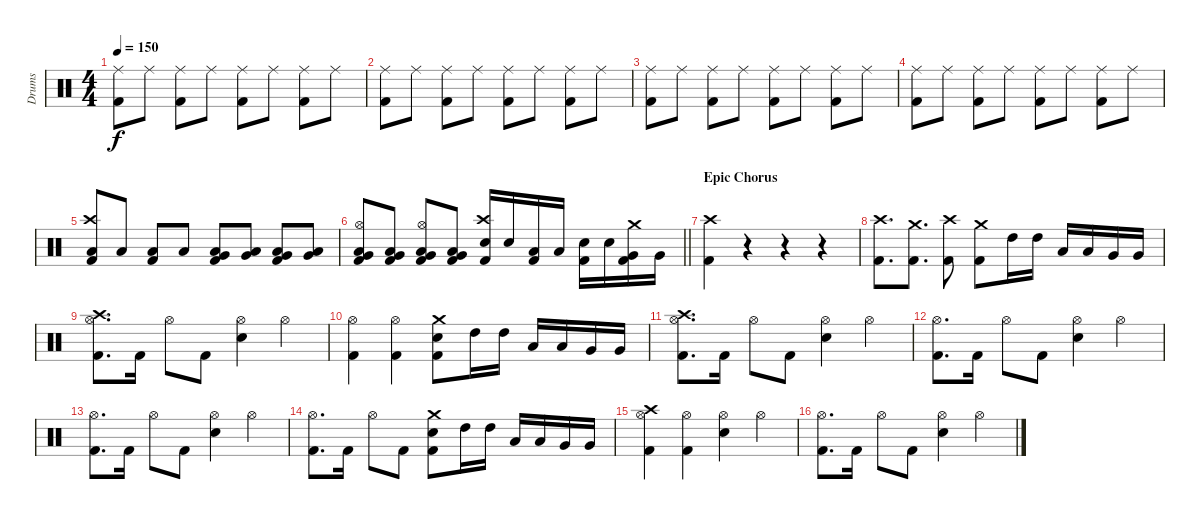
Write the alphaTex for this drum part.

\track ("Drums" "Drums") {instrument percussion}
\staff {score}
\articulation defaults
\ts (4 4)
\tempo 150
\clef neutral
\ks c
("Ride (middle)" "Kick (hit) 2").8{dy f} "Ride (middle)".8 ("Ride (middle)" "Kick (hit) 2").8 "Ride (middle)".8 ("Ride (middle)" "Kick (hit) 2").8 "Ride (middle)".8 ("Ride (middle)" "Kick (hit) 2").8 "Ride (middle)".8 |
("Ride (middle)" "Kick (hit) 2").8 "Ride (middle)".8 ("Ride (middle)" "Kick (hit) 2").8 "Ride (middle)".8 ("Ride (middle)" "Kick (hit) 2").8 "Ride (middle)".8 ("Ride (middle)" "Kick (hit) 2").8 "Ride (middle)".8 |
("Ride (middle)" "Kick (hit) 2").8 "Ride (middle)".8 ("Ride (middle)" "Kick (hit) 2").8 "Ride (middle)".8 ("Ride (middle)" "Kick (hit) 2").8 "Ride (middle)".8 ("Ride (middle)" "Kick (hit) 2").8 "Ride (middle)".8 |
("Ride (middle)" "Kick (hit) 2").8 "Ride (middle)".8 ("Ride (middle)" "Kick (hit) 2").8 "Ride (middle)".8 ("Ride (middle)" "Kick (hit) 2").8 "Ride (middle)".8 ("Ride (middle)" "Kick (hit) 2").8 "Ride (middle)".8 |
("Crash high (hit)" "Low Floor Tom (hit)" "Kick (hit) 2").8 "Low Floor Tom (hit)".8 ("Low Floor Tom (hit)" "Kick (hit) 2").8 "Low Floor Tom (hit)".8 ("Very Low Tom (hit)" "Low Floor Tom (hit)" "Kick (hit) 2").8 ("Very Low Tom (hit)" "Low Floor Tom (hit)").8 ("Very Low Tom (hit)" "Low Floor Tom (hit)" "Kick (hit) 2").8 ("Very Low Tom (hit)" "Low Floor Tom (hit)").8 |
\barLineRight lightlight
("Hi-Hat (open)" "Low Tom (hit)" "Very Low Tom (hit)" "Kick (hit) 2").8 ("Low Tom (hit)" "Very Low Tom (hit)" "Kick (hit) 2").8 ("Hi-Hat (open)" "Low Tom (hit)" "Very Low Tom (hit)" "Kick (hit) 2").8 ("Low Tom (hit)" "Very Low Tom (hit)" "Kick (hit) 2").8 ("Crash high (hit)" "Snare (hit) 2" "Kick (hit) 2").16 "Snare (hit) 2".16 ("Low Tom (hit)" "Kick (hit) 2").16 "Low Tom (hit)".16 ("Snare (hit) 2" "Kick (hit) 2").16 "Snare (hit) 2".16 ("Crash medium (hit)" "Very Low Tom (hit)" "Kick (hit) 2").16 "Very Low Tom (hit)".16 |
\section ("" "Epic Chorus")
("Crash high (hit)" "Kick (hit) 2").4 r.4 r.4 r.4 |
("Crash high (hit)" "Kick (hit) 2").8{d} ("Crash medium (hit)" "Kick (hit) 2").8{d} ("Crash high (hit)" "Kick (hit) 2").8 ("Crash medium (hit)" "Kick (hit) 2").8 "High Tom (hit)".16 "High Tom (hit)".16 "Low Tom (hit)".16 "Low Tom (hit)".16 "Very Low Tom (hit)".16 "Very Low Tom (hit)".16 |
("Crash high (hit)" "Hi-Hat (open)" "Kick (hit) 2").8{d} "Kick (hit) 2".16 "Hi-Hat (open)".8 "Kick (hit) 2".8 ("Hi-Hat (open)" "Snare (hit) 2").4 "Hi-Hat (open)".4 |
("Hi-Hat (open)" "Kick (hit) 2").4 ("Hi-Hat (open)" "Kick (hit) 2").4 ("Crash medium (hit)" "Snare (hit) 2" "Kick (hit) 2").8 "High Tom (hit)".16 "High Tom (hit)".16 "Low Tom (hit)".16 "Low Tom (hit)".16 "Very Low Tom (hit)".16 "Very Low Tom (hit)".16 |
("Crash high (hit)" "Hi-Hat (open)" "Kick (hit) 2").8{d} "Kick (hit) 2".16 "Hi-Hat (open)".8 "Kick (hit) 2".8 ("Hi-Hat (open)" "Snare (hit) 2").4 "Hi-Hat (open)".4 |
("Hi-Hat (open)" "Kick (hit) 2").8{d} "Kick (hit) 2".16 "Hi-Hat (open)".8 "Kick (hit) 2".8 ("Hi-Hat (open)" "Snare (hit) 2").4 "Hi-Hat (open)".4 |
("Hi-Hat (open)" "Kick (hit) 2").8{d} "Kick (hit) 2".16 "Hi-Hat (open)".8 "Kick (hit) 2".8 ("Hi-Hat (open)" "Snare (hit) 2").4 "Hi-Hat (open)".4 |
("Hi-Hat (open)" "Kick (hit) 2").8{d} "Kick (hit) 2".16 "Hi-Hat (open)".8 "Kick (hit) 2".8 ("Crash medium (hit)" "Snare (hit) 2" "Kick (hit) 2").8 "High Tom (hit)".16 "High Tom (hit)".16 "Low Tom (hit)".16 "Low Tom (hit)".16 "Very Low Tom (hit)".16 "Very Low Tom (hit)".16 |
("Crash high (hit)" "Hi-Hat (open)" "Kick (hit) 2").4 ("Hi-Hat (open)" "Kick (hit) 2").4 ("Hi-Hat (open)" "Snare (hit) 2").4 "Hi-Hat (open)".4 |
("Hi-Hat (open)" "Kick (hit) 2").8{d} "Kick (hit) 2".16 "Hi-Hat (open)".8 "Kick (hit) 2".8 ("Hi-Hat (open)" "Snare (hit) 2").4 "Hi-Hat (open)".4
